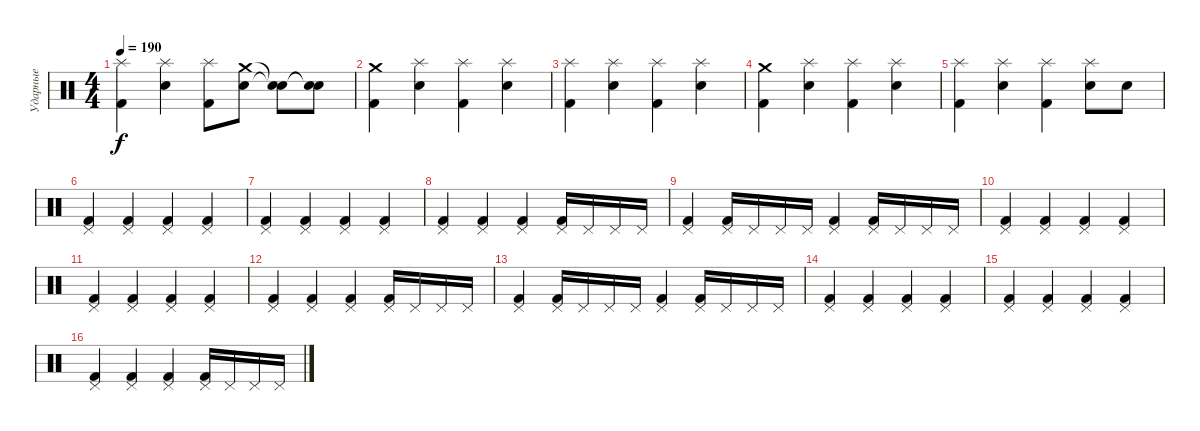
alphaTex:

\track ("Ударные" "Ударные") {instrument percussion}
\staff {score}
\articulation defaults
\ts (4 4)
\tempo 190
\clef neutral
\ks c
("Splash (hit)" "Kick (hit) 2").4{dy f} ("Splash (hit)" "Snare (hit) 2").4 ("Splash (hit)" "Kick (hit) 2").8 ("Crash medium (hit)" "Snare (hit) 2").8 ("Snare (hit)"{t} "Snare (hit)"{t}).8 ("Snare (hit)"{t} "Snare (hit)"{t}).8 |
("Crash medium (hit)" "Kick (hit) 2").4 ("Splash (hit)" "Snare (hit) 2").4 ("Splash (hit)" "Kick (hit) 2").4 ("Splash (hit)" "Snare (hit) 2").4 |
("Splash (hit)" "Kick (hit) 2").4 ("Splash (hit)" "Snare (hit) 2").4 ("Splash (hit)" "Kick (hit) 2").4 ("Splash (hit)" "Snare (hit) 2").4 |
("Crash medium (hit)" "Kick (hit) 2").4 ("Splash (hit)" "Snare (hit) 2").4 ("Splash (hit)" "Kick (hit) 2").4 ("Splash (hit)" "Snare (hit) 2").4 |
("Splash (hit)" "Kick (hit) 2").4 ("Splash (hit)" "Snare (hit) 2").4 ("Splash (hit)" "Kick (hit) 2").4 ("Splash (hit)" "Snare (hit) 2").8 "Snare (hit) 2".8 |
("Pedal Hi-Hat (hit)" "Kick (hit) 2").4 ("Pedal Hi-Hat (hit)" "Kick (hit) 2").4 ("Pedal Hi-Hat (hit)" "Kick (hit) 2").4 ("Pedal Hi-Hat (hit)" "Kick (hit) 2").4 |
("Pedal Hi-Hat (hit)" "Kick (hit) 2").4 ("Pedal Hi-Hat (hit)" "Kick (hit) 2").4 ("Pedal Hi-Hat (hit)" "Kick (hit) 2").4 ("Pedal Hi-Hat (hit)" "Kick (hit) 2").4 |
("Pedal Hi-Hat (hit)" "Kick (hit) 2").4 ("Pedal Hi-Hat (hit)" "Kick (hit) 2").4 ("Pedal Hi-Hat (hit)" "Kick (hit) 2").4 ("Pedal Hi-Hat (hit)" "Kick (hit) 2").16 "Pedal Hi-Hat (hit)".16 "Pedal Hi-Hat (hit)".16 "Pedal Hi-Hat (hit)".16 |
("Pedal Hi-Hat (hit)" "Kick (hit) 2").4 ("Pedal Hi-Hat (hit)" "Kick (hit) 2").16 "Pedal Hi-Hat (hit)".16 "Pedal Hi-Hat (hit)".16 "Pedal Hi-Hat (hit)".16 ("Pedal Hi-Hat (hit)" "Kick (hit) 2").4 ("Pedal Hi-Hat (hit)" "Kick (hit) 2").16 "Pedal Hi-Hat (hit)".16 "Pedal Hi-Hat (hit)".16 "Pedal Hi-Hat (hit)".16 |
("Pedal Hi-Hat (hit)" "Kick (hit) 2").4 ("Pedal Hi-Hat (hit)" "Kick (hit) 2").4 ("Pedal Hi-Hat (hit)" "Kick (hit) 2").4 ("Pedal Hi-Hat (hit)" "Kick (hit) 2").4 |
("Pedal Hi-Hat (hit)" "Kick (hit) 2").4 ("Pedal Hi-Hat (hit)" "Kick (hit) 2").4 ("Pedal Hi-Hat (hit)" "Kick (hit) 2").4 ("Pedal Hi-Hat (hit)" "Kick (hit) 2").4 |
("Pedal Hi-Hat (hit)" "Kick (hit) 2").4 ("Pedal Hi-Hat (hit)" "Kick (hit) 2").4 ("Pedal Hi-Hat (hit)" "Kick (hit) 2").4 ("Pedal Hi-Hat (hit)" "Kick (hit) 2").16 "Pedal Hi-Hat (hit)".16 "Pedal Hi-Hat (hit)".16 "Pedal Hi-Hat (hit)".16 |
("Pedal Hi-Hat (hit)" "Kick (hit) 2").4 ("Pedal Hi-Hat (hit)" "Kick (hit) 2").16 "Pedal Hi-Hat (hit)".16 "Pedal Hi-Hat (hit)".16 "Pedal Hi-Hat (hit)".16 ("Pedal Hi-Hat (hit)" "Kick (hit) 2").4 ("Pedal Hi-Hat (hit)" "Kick (hit) 2").16 "Pedal Hi-Hat (hit)".16 "Pedal Hi-Hat (hit)".16 "Pedal Hi-Hat (hit)".16 |
("Pedal Hi-Hat (hit)" "Kick (hit) 2").4 ("Pedal Hi-Hat (hit)" "Kick (hit) 2").4 ("Pedal Hi-Hat (hit)" "Kick (hit) 2").4 ("Pedal Hi-Hat (hit)" "Kick (hit) 2").4 |
("Pedal Hi-Hat (hit)" "Kick (hit) 2").4 ("Pedal Hi-Hat (hit)" "Kick (hit) 2").4 ("Pedal Hi-Hat (hit)" "Kick (hit) 2").4 ("Pedal Hi-Hat (hit)" "Kick (hit) 2").4 |
("Pedal Hi-Hat (hit)" "Kick (hit) 2").4 ("Pedal Hi-Hat (hit)" "Kick (hit) 2").4 ("Pedal Hi-Hat (hit)" "Kick (hit) 2").4 ("Pedal Hi-Hat (hit)" "Kick (hit) 2").16 "Pedal Hi-Hat (hit)".16 "Pedal Hi-Hat (hit)".16 "Pedal Hi-Hat (hit)".16
